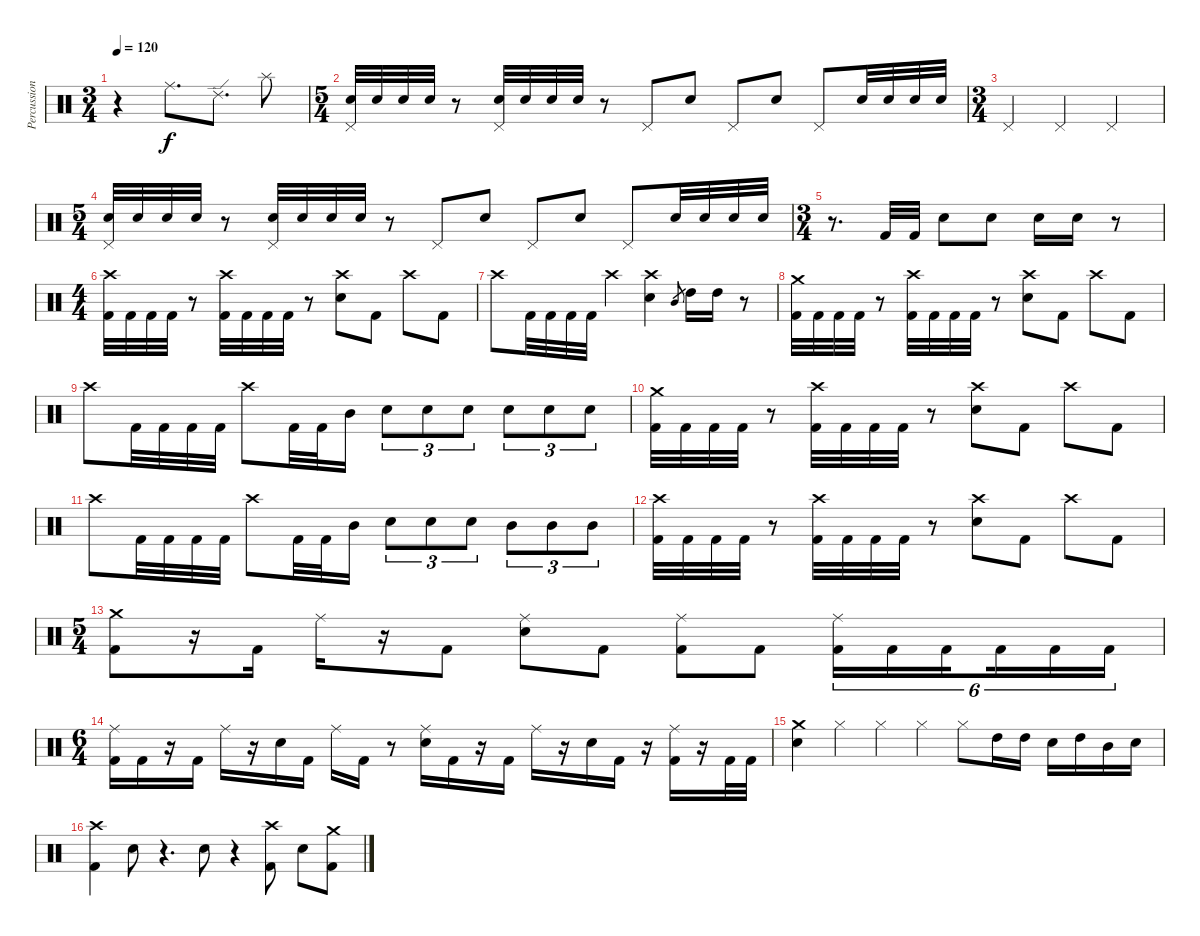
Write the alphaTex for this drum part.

\track ("Percussion" "Percussion") {instrument percussion}
\staff {score}
\articulation defaults
\ts (3 4)
\tempo 120
\clef neutral
\ks c
r.4{dy f} "Ride (middle)".8{d} "Ride (edge) 2".8{d} "Splash (hit)".8 |
\ts (5 4)
("Electric Snare (hit)" "Pedal Hi-Hat (hit)").32 "Electric Snare (hit)".32 "Electric Snare (hit)".32 "Electric Snare (hit)".32 r.8 ("Electric Snare (hit)" "Pedal Hi-Hat (hit)").32 "Electric Snare (hit)".32 "Electric Snare (hit)".32 "Electric Snare (hit)".32 r.8 "Pedal Hi-Hat (hit)".8 "Electric Snare (hit)".8 "Pedal Hi-Hat (hit)".8 "Electric Snare (hit)".8 "Pedal Hi-Hat (hit)".8 "Electric Snare (hit)".32 "Electric Snare (hit)".32 "Electric Snare (hit)".32 "Electric Snare (hit)".32 |
\ts (3 4)
"Pedal Hi-Hat (hit)".4 "Pedal Hi-Hat (hit)".4 "Pedal Hi-Hat (hit)".4 |
\ts (5 4)
("Electric Snare (hit)" "Pedal Hi-Hat (hit)").32 "Electric Snare (hit)".32 "Electric Snare (hit)".32 "Electric Snare (hit)".32 r.8 ("Electric Snare (hit)" "Pedal Hi-Hat (hit)").32 "Electric Snare (hit)".32 "Electric Snare (hit)".32 "Electric Snare (hit)".32 r.8 "Pedal Hi-Hat (hit)".8 "Electric Snare (hit)".8 "Pedal Hi-Hat (hit)".8 "Electric Snare (hit)".8 "Pedal Hi-Hat (hit)".8 "Electric Snare (hit)".32 "Electric Snare (hit)".32 "Electric Snare (hit)".32 "Electric Snare (hit)".32 |
\ts (3 4)
r.8{d} "Kick (hit) 2".32 "Kick (hit) 2".32 "Electric Snare (hit)".8 "Electric Snare (hit)".8 "Electric Snare (hit)".16 "Electric Snare (hit)".16 r.8 |
\ts (4 4)
("Crash high (hit)" "Kick (hit) 2").32 "Kick (hit) 2".32 "Kick (hit) 2".32 "Kick (hit) 2".32 r.8 ("Crash high (hit)" "Kick (hit) 2").32 "Kick (hit) 2".32 "Kick (hit) 2".32 "Kick (hit) 2".32 r.8 ("Crash high (hit)" "Electric Snare (hit)").8 "Kick (hit) 2".8 "Crash high (hit)".8 "Kick (hit) 2".8 |
"Crash high (hit)".8 "Kick (hit) 2".32 "Kick (hit) 2".32 "Kick (hit) 2".32 "Kick (hit) 2".32 "Crash high (hit)".4 ("Crash high (hit)" "Electric Snare (hit)").4 "Mid Tom (hit)".8{gr} "High Tom (hit)".16 "High Tom (hit)".16 r.8 |
("Crash medium (hit)" "Kick (hit) 2").32 "Kick (hit) 2".32 "Kick (hit) 2".32 "Kick (hit) 2".32 r.8 ("Crash high (hit)" "Kick (hit) 2").32 "Kick (hit) 2".32 "Kick (hit) 2".32 "Kick (hit) 2".32 r.8 ("Crash high (hit)" "Electric Snare (hit)").8 "Kick (hit) 2".8 "Crash high (hit)".8 "Kick (hit) 2".8 |
"Crash high (hit)".8 "Kick (hit) 2".32 "Kick (hit) 2".32 "Kick (hit) 2".32 "Kick (hit) 2".32 "Crash high (hit)".8 "Kick (hit) 2".32 "Kick (hit) 2".32 "Mid Tom (hit)".16 "Electric Snare (hit)".8{tu (3 2)} "Electric Snare (hit)".8{tu (3 2)} "Electric Snare (hit)".8{tu (3 2)} "Electric Snare (hit)".8{tu (3 2)} "Electric Snare (hit)".8{tu (3 2)} "Electric Snare (hit)".8{tu (3 2)} |
("Crash medium (hit)" "Kick (hit) 2").32 "Kick (hit) 2".32 "Kick (hit) 2".32 "Kick (hit) 2".32 r.8 ("Crash high (hit)" "Kick (hit) 2").32 "Kick (hit) 2".32 "Kick (hit) 2".32 "Kick (hit) 2".32 r.8 ("Crash high (hit)" "Electric Snare (hit)").8 "Kick (hit) 2".8 "Crash high (hit)".8 "Kick (hit) 2".8 |
"Crash high (hit)".8 "Kick (hit) 2".32 "Kick (hit) 2".32 "Kick (hit) 2".32 "Kick (hit) 2".32 "Crash high (hit)".8 "Kick (hit) 2".32 "Kick (hit) 2".32 "Mid Tom (hit)".16 "Electric Snare (hit)".8{tu (3 2)} "Electric Snare (hit)".8{tu (3 2)} "Electric Snare (hit)".8{tu (3 2)} "Mid Tom (hit)".8{tu (3 2)} "Mid Tom (hit)".8{tu (3 2)} "Mid Tom (hit)".8{tu (3 2)} |
("Crash high (hit)" "Kick (hit) 2").32 "Kick (hit) 2".32 "Kick (hit) 2".32 "Kick (hit) 2".32 r.8 ("Crash high (hit)" "Kick (hit) 2").32 "Kick (hit) 2".32 "Kick (hit) 2".32 "Kick (hit) 2".32 r.8 ("Crash high (hit)" "Electric Snare (hit)").8 "Kick (hit) 2".8 "Crash high (hit)".8 "Kick (hit) 2".8 |
\ts (5 4)
("Crash medium (hit)" "Kick (hit) 2").8 r.16 "Kick (hit) 2".16 "Ride (middle)".16 r.16 "Kick (hit) 2".8 ("Ride (middle)" "Electric Snare (hit)").8 "Kick (hit) 2".8 ("Ride (middle)" "Kick (hit) 2").8 "Kick (hit) 2".8 ("Ride (middle)" "Kick (hit) 2").16{tu (6 4)} "Kick (hit) 2".16{tu (6 4)} "Kick (hit) 2".16{tu (6 4) beam splitsecondary} "Kick (hit) 2".16{tu (6 4)} "Kick (hit) 2".16{tu (6 4)} "Kick (hit) 2".16{tu (6 4)} |
\ts (6 4)
("Ride (middle)" "Kick (hit) 2").16 "Kick (hit) 2".16 r.16 "Kick (hit) 2".16 "Ride (middle)".16 r.16 "Electric Snare (hit)".16 "Kick (hit) 2".16 "Ride (middle)".16 "Kick (hit) 2".16 r.8 ("Ride (middle)" "Electric Snare (hit)").16 "Kick (hit) 2".16 r.16 "Kick (hit) 2".16 "Ride (middle)".16 r.16 "Electric Snare (hit)".16 "Kick (hit) 2".16 r.16 ("Ride (middle)" "Kick (hit) 2").16 r.16 "Kick (hit) 2".32 "Kick (hit) 2".32 |
("Crash medium (hit)" "Electric Snare (hit)").4 "Hi-Hat (closed)".4 "Hi-Hat (closed)".4 "Hi-Hat (closed)".4 "Hi-Hat (closed)".8 "High Tom (hit)".16 "High Tom (hit)".16 "Electric Snare (hit)".16 "High Tom (hit)".16 "Mid Tom (hit)".16 "Electric Snare (hit)".16 |
("Crash high (hit)" "Kick (hit) 2").4 "Electric Snare (hit)".8 r.4{d} "Electric Snare (hit)".8 r.4 ("Crash high (hit)" "Kick (hit) 2").8 "Electric Snare (hit)".8 ("Crash medium (hit)" "Kick (hit) 2").8
